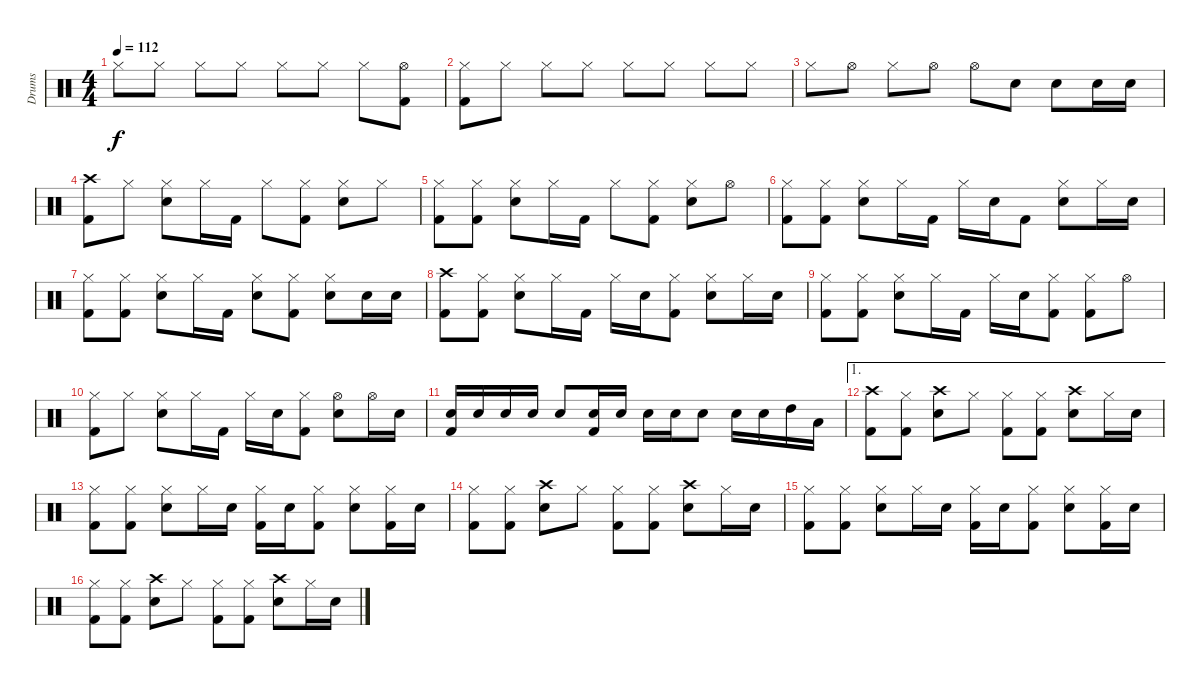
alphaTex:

\track ("Drums" "Drums") {instrument percussion}
\staff {score}
\articulation defaults
\ts (4 4)
\tempo 112
\clef neutral
\ks c "Hi-Hat (closed)".8{dy f} "Hi-Hat (closed)".8 "Hi-Hat (closed)".8 "Hi-Hat (closed)".8 "Hi-Hat (closed)".8 "Hi-Hat (closed)".8 "Hi-Hat (closed)".8
("Hi-Hat (open)" "Kick (hit) 2").8 |
("Hi-Hat (closed)" "Kick (hit) 2").8 "Hi-Hat (closed)".8 "Hi-Hat (closed)".8 "Hi-Hat (closed)".8 "Hi-Hat (closed)".8 "Hi-Hat (closed)".8 "Hi-Hat (closed)".8 "Hi-Hat (closed)".8 |
"Hi-Hat (closed)".8 "Hi-Hat (open)".8 "Hi-Hat (closed)".8 "Hi-Hat (open)".8 "Hi-Hat (open)".8 "Snare (hit) 2".8 "Snare (hit) 2".8 "Snare (hit) 2".16 "Snare (hit) 2".16 |
("Crash high (hit)" "Kick (hit) 2").8 "Hi-Hat (closed)".8 ("Hi-Hat (closed)" "Snare (hit) 2").8 "Hi-Hat (closed)".16 "Kick (hit) 2".16 "Hi-Hat (closed)".8 ("Hi-Hat (closed)" "Kick (hit) 2").8 ("Hi-Hat (closed)" "Snare (hit) 2").8 "Hi-Hat (closed)".8 |
("Hi-Hat (closed)" "Kick (hit) 2").8 ("Hi-Hat (closed)" "Kick (hit) 2").8 ("Hi-Hat (closed)" "Snare (hit) 2").8 "Hi-Hat (closed)".16 "Kick (hit) 2".16 "Hi-Hat (closed)".8 ("Hi-Hat (closed)" "Kick (hit) 2").8 ("Hi-Hat (closed)" "Snare (hit) 2").8 "Hi-Hat (open)".8 |
("Hi-Hat (closed)" "Kick (hit) 2").8 ("Hi-Hat (closed)" "Kick (hit) 2").8 ("Hi-Hat (closed)" "Snare (hit) 2").8 "Hi-Hat (closed)".16 "Kick (hit) 2".16 "Hi-Hat (closed)".16 "Snare (hit) 2".16 "Kick (hit) 2".8 ("Hi-Hat (closed)" "Snare (hit) 2").8 "Hi-Hat (closed)".16 "Snare (hit) 2".16 |
("Hi-Hat (closed)" "Kick (hit) 2").8 ("Hi-Hat (closed)" "Kick (hit) 2").8 ("Hi-Hat (closed)" "Snare (hit) 2").8 "Hi-Hat (closed)".16 "Kick (hit) 2".16 ("Hi-Hat (closed)" "Snare (hit) 2").8 ("Hi-Hat (closed)" "Kick (hit) 2").8 ("Hi-Hat (closed)" "Snare (hit) 2").8 "Snare (hit) 2".16 "Snare (hit) 2".16 |
("Crash high (hit)" "Kick (hit) 2").8 ("Hi-Hat (closed)" "Kick (hit) 2").8 ("Hi-Hat (closed)" "Snare (hit) 2").8 "Hi-Hat (closed)".16 "Kick (hit) 2".16 "Hi-Hat (closed)".16 "Snare (hit) 2".16 ("Hi-Hat (closed)" "Kick (hit) 2").8 ("Hi-Hat (closed)" "Snare (hit) 2").8 "Hi-Hat (closed)".16 "Snare (hit) 2".16 |
("Hi-Hat (closed)" "Kick (hit) 2").8 ("Hi-Hat (closed)" "Kick (hit) 2").8 ("Hi-Hat (closed)" "Snare (hit) 2").8 "Hi-Hat (closed)".16 "Kick (hit) 2".16 "Hi-Hat (closed)".16 "Snare (hit) 2".16 ("Hi-Hat (closed)" "Kick (hit) 2").8 ("Hi-Hat (closed)" "Kick (hit) 2").8 "Hi-Hat (open)".8 |
("Hi-Hat (closed)" "Kick (hit) 2").8 "Hi-Hat (closed)".8 ("Hi-Hat (closed)" "Snare (hit) 2").8 "Hi-Hat (closed)".16 "Kick (hit) 2".16 "Hi-Hat (closed)".16 "Snare (hit) 2".16 ("Hi-Hat (closed)" "Kick (hit) 2").8 ("Hi-Hat (open)" "Snare (hit) 2").8 "Hi-Hat (open)".16 "Snare (hit) 2".16 |
("Snare (hit) 2" "Kick (hit) 2").16 "Snare (hit) 2".16 "Snare (hit) 2".16 "Snare (hit) 2".16 "Snare (hit) 2".8 ("Snare (hit) 2" "Kick (hit) 2").16 "Snare (hit) 2".16 "Snare (hit) 2".16 "Snare (hit) 2".16 "Snare (hit) 2".8 "Snare (hit) 2".16 "Snare (hit) 2".16 "High Tom (hit)".16 "Low Tom (hit)".16 |
\ae 1
("Crash high (hit)" "Kick (hit) 2").8 ("Hi-Hat (closed)" "Kick (hit) 2").8 ("Crash high (hit)" "Snare (hit) 2").8 "Hi-Hat (closed)".8 ("Hi-Hat (closed)" "Kick (hit) 2").8 ("Hi-Hat (closed)" "Kick (hit) 2").8 ("Crash high (hit)" "Snare (hit) 2").8 "Hi-Hat (closed)".16 "Snare (hit) 2".16 |
("Hi-Hat (closed)" "Kick (hit) 2").8 ("Hi-Hat (closed)" "Kick (hit) 2").8 ("Hi-Hat (closed)" "Snare (hit) 2").8 "Hi-Hat (closed)".16 "Snare (hit) 2".16 ("Hi-Hat (closed)" "Kick (hit) 2").16 "Snare (hit) 2".16 ("Hi-Hat (closed)" "Kick (hit) 2").8 ("Hi-Hat (closed)" "Snare (hit) 2").8 ("Hi-Hat (closed)" "Kick (hit) 2").16 "Snare (hit) 2".16 |
("Hi-Hat (closed)" "Kick (hit) 2").8 ("Hi-Hat (closed)" "Kick (hit) 2").8 ("Crash high (hit)" "Snare (hit) 2").8 "Hi-Hat (closed)".8 ("Hi-Hat (closed)" "Kick (hit) 2").8 ("Hi-Hat (closed)" "Kick (hit) 2").8 ("Crash high (hit)" "Snare (hit) 2").8 "Hi-Hat (closed)".16 "Snare (hit) 2".16 |
("Hi-Hat (closed)" "Kick (hit) 2").8 ("Hi-Hat (closed)" "Kick (hit) 2").8 ("Hi-Hat (closed)" "Snare (hit) 2").8 "Hi-Hat (closed)".16 "Snare (hit) 2".16 ("Hi-Hat (closed)" "Kick (hit) 2").16 "Snare (hit) 2".16 ("Hi-Hat (closed)" "Kick (hit) 2").8 ("Hi-Hat (closed)" "Snare (hit) 2").8 ("Hi-Hat (closed)" "Kick (hit) 2").16 "Snare (hit) 2".16 |
("Hi-Hat (closed)" "Kick (hit) 2").8 ("Hi-Hat (closed)" "Kick (hit) 2").8 ("Crash high (hit)" "Snare (hit) 2").8 "Hi-Hat (closed)".8 ("Hi-Hat (closed)" "Kick (hit) 2").8 ("Hi-Hat (closed)" "Kick (hit) 2").8 ("Crash high (hit)" "Snare (hit) 2").8 "Hi-Hat (closed)".16 "Snare (hit) 2".16
